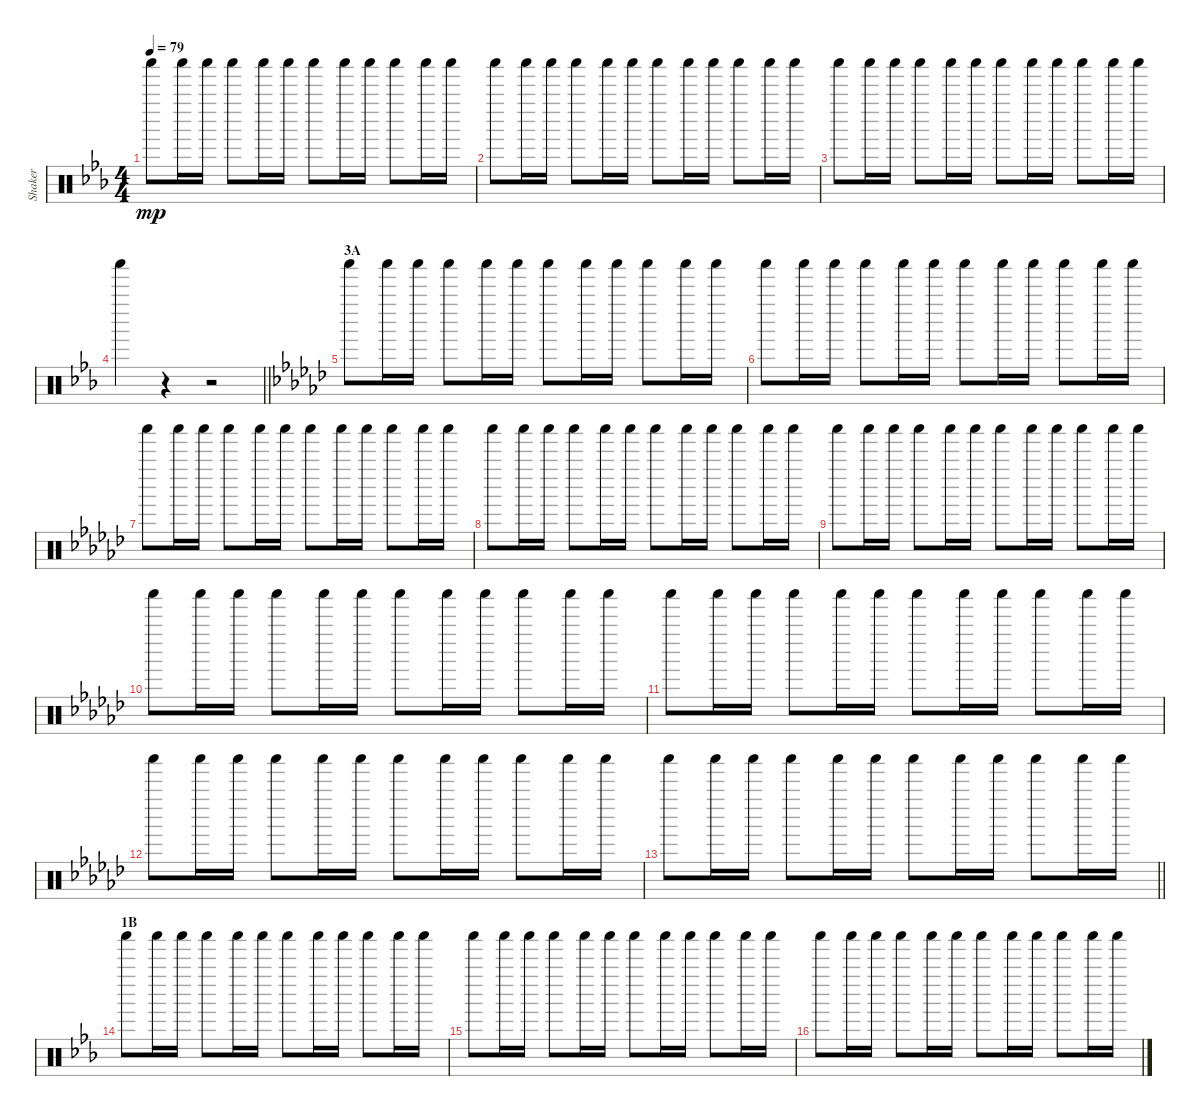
\track ("Shaker" "Shaker") {instrument percussion}
\staff {score}
\articulation defaults
\ts (4 4)
\tempo 79
\clef neutral
\ks eb "Shaker (hit)".8{dy mp} "Shaker (hit)".16 "Shaker (hit)".16 "Shaker (hit)".8 "Shaker (hit)".16 "Shaker (hit)".16 "Shaker (hit)".8 "Shaker (hit)".16 "Shaker (hit)".16 "Shaker (hit)".8 "Shaker (hit)".16 "Shaker (hit)".16
|
"Shaker (hit)".8 "Shaker (hit)".16 "Shaker (hit)".16 "Shaker (hit)".8 "Shaker (hit)".16 "Shaker (hit)".16 "Shaker (hit)".8 "Shaker (hit)".16 "Shaker (hit)".16 "Shaker (hit)".8 "Shaker (hit)".16 "Shaker (hit)".16 |
"Shaker (hit)".8 "Shaker (hit)".16 "Shaker (hit)".16 "Shaker (hit)".8 "Shaker (hit)".16 "Shaker (hit)".16 "Shaker (hit)".8 "Shaker (hit)".16 "Shaker (hit)".16 "Shaker (hit)".8 "Shaker (hit)".16 "Shaker (hit)".16 |
\barLineRight lightlight "Shaker (hit)".4
r.4 r.2 |
\section ("" "3A")
\ks gb "Shaker (hit)".8 "Shaker (hit)".16 "Shaker (hit)".16 "Shaker (hit)".8 "Shaker (hit)".16 "Shaker (hit)".16 "Shaker (hit)".8 "Shaker (hit)".16 "Shaker (hit)".16 "Shaker (hit)".8 "Shaker (hit)".16 "Shaker (hit)".16
|
"Shaker (hit)".8 "Shaker (hit)".16 "Shaker (hit)".16 "Shaker (hit)".8 "Shaker (hit)".16 "Shaker (hit)".16 "Shaker (hit)".8 "Shaker (hit)".16 "Shaker (hit)".16 "Shaker (hit)".8 "Shaker (hit)".16 "Shaker (hit)".16 |
"Shaker (hit)".8 "Shaker (hit)".16 "Shaker (hit)".16 "Shaker (hit)".8 "Shaker (hit)".16 "Shaker (hit)".16 "Shaker (hit)".8 "Shaker (hit)".16 "Shaker (hit)".16 "Shaker (hit)".8 "Shaker (hit)".16 "Shaker (hit)".16 |
"Shaker (hit)".8 "Shaker (hit)".16 "Shaker (hit)".16 "Shaker (hit)".8 "Shaker (hit)".16 "Shaker (hit)".16 "Shaker (hit)".8 "Shaker (hit)".16 "Shaker (hit)".16 "Shaker (hit)".8 "Shaker (hit)".16 "Shaker (hit)".16 |
"Shaker (hit)".8 "Shaker (hit)".16 "Shaker (hit)".16 "Shaker (hit)".8 "Shaker (hit)".16 "Shaker (hit)".16 "Shaker (hit)".8 "Shaker (hit)".16 "Shaker (hit)".16 "Shaker (hit)".8 "Shaker (hit)".16 "Shaker (hit)".16 |
"Shaker (hit)".8 "Shaker (hit)".16 "Shaker (hit)".16 "Shaker (hit)".8 "Shaker (hit)".16 "Shaker (hit)".16 "Shaker (hit)".8 "Shaker (hit)".16 "Shaker (hit)".16 "Shaker (hit)".8 "Shaker (hit)".16 "Shaker (hit)".16 |
"Shaker (hit)".8 "Shaker (hit)".16 "Shaker (hit)".16 "Shaker (hit)".8 "Shaker (hit)".16 "Shaker (hit)".16 "Shaker (hit)".8 "Shaker (hit)".16 "Shaker (hit)".16 "Shaker (hit)".8 "Shaker (hit)".16 "Shaker (hit)".16 |
"Shaker (hit)".8 "Shaker (hit)".16 "Shaker (hit)".16 "Shaker (hit)".8 "Shaker (hit)".16 "Shaker (hit)".16 "Shaker (hit)".8 "Shaker (hit)".16 "Shaker (hit)".16 "Shaker (hit)".8 "Shaker (hit)".16 "Shaker (hit)".16 |
\barLineRight lightlight "Shaker (hit)".8 "Shaker (hit)".16 "Shaker (hit)".16 "Shaker (hit)".8 "Shaker (hit)".16 "Shaker (hit)".16 "Shaker (hit)".8 "Shaker (hit)".16 "Shaker (hit)".16 "Shaker (hit)".8 "Shaker (hit)".16 "Shaker (hit)".16
|
\section ("" "1B")
\ks eb "Shaker (hit)".8 "Shaker (hit)".16 "Shaker (hit)".16 "Shaker (hit)".8 "Shaker (hit)".16 "Shaker (hit)".16 "Shaker (hit)".8 "Shaker (hit)".16 "Shaker (hit)".16 "Shaker (hit)".8 "Shaker (hit)".16 "Shaker (hit)".16
|
"Shaker (hit)".8 "Shaker (hit)".16 "Shaker (hit)".16 "Shaker (hit)".8 "Shaker (hit)".16 "Shaker (hit)".16 "Shaker (hit)".8 "Shaker (hit)".16 "Shaker (hit)".16 "Shaker (hit)".8 "Shaker (hit)".16 "Shaker (hit)".16 |
"Shaker (hit)".8 "Shaker (hit)".16 "Shaker (hit)".16 "Shaker (hit)".8 "Shaker (hit)".16 "Shaker (hit)".16 "Shaker (hit)".8 "Shaker (hit)".16 "Shaker (hit)".16 "Shaker (hit)".8 "Shaker (hit)".16 "Shaker (hit)".16
